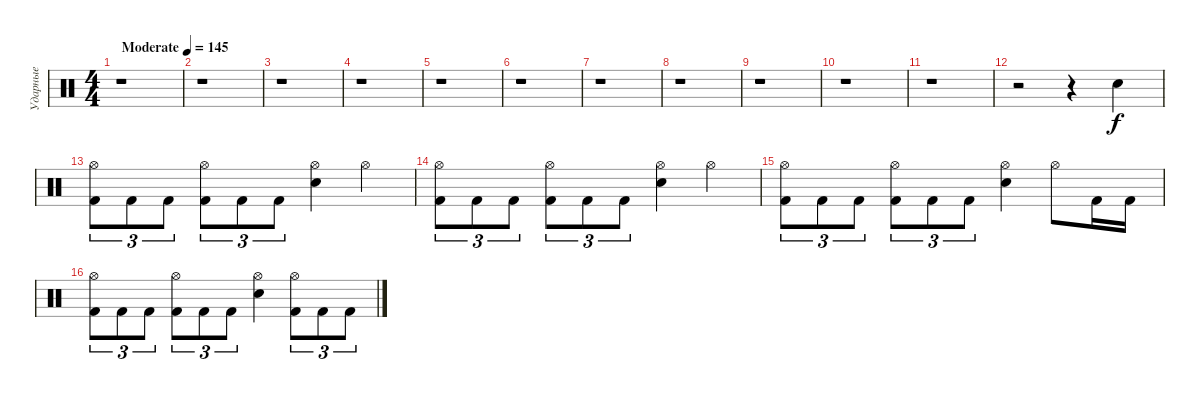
\track ("Ударные" "Ударные") {instrument percussion}
\staff {score}
\articulation defaults
\ts (4 4)
\tempo (145 "Moderate")
\clef neutral
\ks c
r.1{dy f} |
r.1 |
r.1 |
r.1 |
r.1 |
r.1 |
r.1 |
r.1 |
r.1 |
r.1 |
r.1 |
r.2 r.4 "Snare (hit) 2".4 |
("Hi-Hat (open)" "Kick (hit) 2").8{tu (3 2)} "Kick (hit) 2".8{tu (3 2)} "Kick (hit) 2".8{tu (3 2)} ("Hi-Hat (open)" "Kick (hit) 2").8{tu (3 2)} "Kick (hit) 2".8{tu (3 2)} "Kick (hit) 2".8{tu (3 2)} ("Hi-Hat (open)" "Snare (hit) 2").4 "Hi-Hat (open)".4 |
("Hi-Hat (open)" "Kick (hit) 2").8{tu (3 2)} "Kick (hit) 2".8{tu (3 2)} "Kick (hit) 2".8{tu (3 2)} ("Hi-Hat (open)" "Kick (hit) 2").8{tu (3 2)} "Kick (hit) 2".8{tu (3 2)} "Kick (hit) 2".8{tu (3 2)} ("Hi-Hat (open)" "Snare (hit) 2").4 "Hi-Hat (open)".4 |
("Hi-Hat (open)" "Kick (hit) 2").8{tu (3 2)} "Kick (hit) 2".8{tu (3 2)} "Kick (hit) 2".8{tu (3 2)} ("Hi-Hat (open)" "Kick (hit) 2").8{tu (3 2)} "Kick (hit) 2".8{tu (3 2)} "Kick (hit) 2".8{tu (3 2)} ("Hi-Hat (open)" "Snare (hit) 2").4 "Hi-Hat (open)".8 "Kick (hit) 2".16 "Kick (hit) 2".16 |
("Hi-Hat (open)" "Kick (hit) 2").8{tu (3 2)} "Kick (hit) 2".8{tu (3 2)} "Kick (hit) 2".8{tu (3 2)} ("Hi-Hat (open)" "Kick (hit) 2").8{tu (3 2)} "Kick (hit) 2".8{tu (3 2)} "Kick (hit) 2".8{tu (3 2)} ("Hi-Hat (open)" "Snare (hit) 2").4 ("Hi-Hat (open)" "Kick (hit) 2").8{tu (3 2)} "Kick (hit) 2".8{tu (3 2)} "Kick (hit) 2".8{tu (3 2)}
